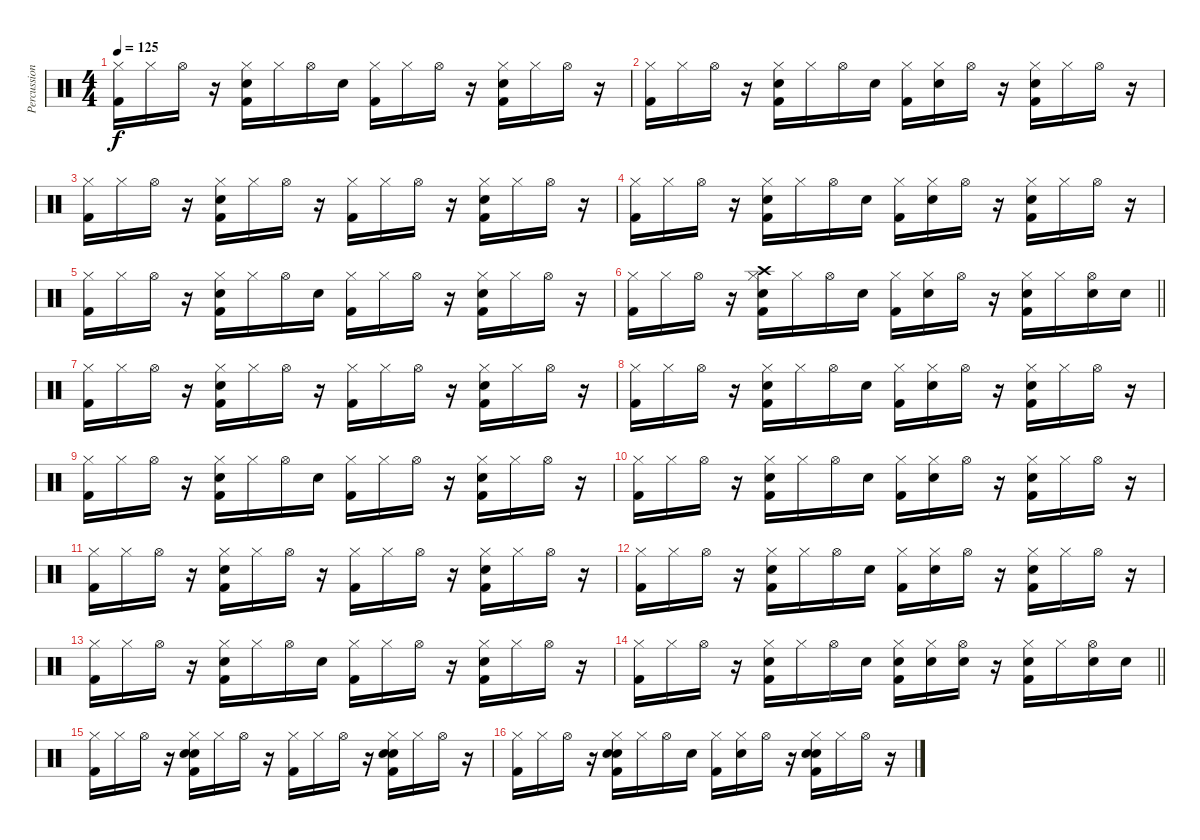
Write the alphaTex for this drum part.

\track ("Percussion" "Percussion") {instrument percussion}
\staff {score}
\articulation defaults
\ts (4 4)
\tempo 125
\clef neutral
\ks c
("Hi-Hat (closed)" "Kick (hit) 2").16{dy f} "Hi-Hat (closed)".16 "Hi-Hat (open)".16 r.16 ("Hi-Hat (closed)" "Electric Snare (hit)" "Kick (hit) 2").16 "Hi-Hat (closed)".16 "Hi-Hat (open)".16 "Electric Snare (hit)".16 ("Hi-Hat (closed)" "Kick (hit) 2").16 "Hi-Hat (closed)".16 "Hi-Hat (open)".16 r.16 ("Hi-Hat (closed)" "Electric Snare (hit)" "Kick (hit) 2").16 "Hi-Hat (closed)".16 "Hi-Hat (open)".16 r.16 |
("Hi-Hat (closed)" "Kick (hit) 2").16 "Hi-Hat (closed)".16 "Hi-Hat (open)".16 r.16 ("Hi-Hat (closed)" "Electric Snare (hit)" "Kick (hit) 2").16 "Hi-Hat (closed)".16 "Hi-Hat (open)".16 "Electric Snare (hit)".16 ("Hi-Hat (closed)" "Kick (hit) 2").16 ("Hi-Hat (closed)" "Electric Snare (hit)").16 "Hi-Hat (open)".16 r.16 ("Hi-Hat (closed)" "Electric Snare (hit)" "Kick (hit) 2").16 "Hi-Hat (closed)".16 "Hi-Hat (open)".16 r.16 |
("Hi-Hat (closed)" "Kick (hit) 2").16 "Hi-Hat (closed)".16 "Hi-Hat (open)".16 r.16 ("Hi-Hat (closed)" "Electric Snare (hit)" "Kick (hit) 2").16 "Hi-Hat (closed)".16 "Hi-Hat (open)".16 r.16 ("Hi-Hat (closed)" "Kick (hit) 2").16 "Hi-Hat (closed)".16 "Hi-Hat (open)".16 r.16 ("Hi-Hat (closed)" "Electric Snare (hit)" "Kick (hit) 2").16 "Hi-Hat (closed)".16 "Hi-Hat (open)".16 r.16 |
("Hi-Hat (closed)" "Kick (hit) 2").16 "Hi-Hat (closed)".16 "Hi-Hat (open)".16 r.16 ("Hi-Hat (closed)" "Electric Snare (hit)" "Kick (hit) 2").16 "Hi-Hat (closed)".16 "Hi-Hat (open)".16 "Electric Snare (hit)".16 ("Hi-Hat (closed)" "Kick (hit) 2").16 ("Hi-Hat (closed)" "Electric Snare (hit)").16 "Hi-Hat (open)".16 r.16 ("Hi-Hat (closed)" "Electric Snare (hit)" "Kick (hit) 2").16 "Hi-Hat (closed)".16 "Hi-Hat (open)".16 r.16 |
("Hi-Hat (closed)" "Kick (hit) 2").16 "Hi-Hat (closed)".16 "Hi-Hat (open)".16 r.16 ("Hi-Hat (closed)" "Electric Snare (hit)" "Kick (hit) 2").16 "Hi-Hat (closed)".16 "Hi-Hat (open)".16 "Electric Snare (hit)".16 ("Hi-Hat (closed)" "Kick (hit) 2").16 "Hi-Hat (closed)".16 "Hi-Hat (open)".16 r.16 ("Hi-Hat (closed)" "Electric Snare (hit)" "Kick (hit) 2").16 "Hi-Hat (closed)".16 "Hi-Hat (open)".16 r.16 |
\barLineRight lightlight
("Hi-Hat (closed)" "Kick (hit) 2").16 "Hi-Hat (closed)".16 "Hi-Hat (open)".16 r.16 ("Hi-Hat (closed)" "Crash high (hit)" "Electric Snare (hit)" "Kick (hit) 2").16 "Hi-Hat (closed)".16 "Hi-Hat (open)".16 "Electric Snare (hit)".16 ("Hi-Hat (closed)" "Kick (hit) 2").16 ("Hi-Hat (closed)" "Electric Snare (hit)").16 "Hi-Hat (open)".16 r.16 ("Hi-Hat (closed)" "Electric Snare (hit)" "Kick (hit) 2").16 "Hi-Hat (closed)".16 ("Hi-Hat (open)" "Electric Snare (hit)").16 "Electric Snare (hit)".16 |
("Hi-Hat (closed)" "Kick (hit) 2").16 "Hi-Hat (closed)".16 "Hi-Hat (open)".16 r.16 ("Hi-Hat (closed)" "Electric Snare (hit)" "Kick (hit) 2").16 "Hi-Hat (closed)".16 "Hi-Hat (open)".16 r.16 ("Hi-Hat (closed)" "Kick (hit) 2").16 "Hi-Hat (closed)".16 "Hi-Hat (open)".16 r.16 ("Hi-Hat (closed)" "Electric Snare (hit)" "Kick (hit) 2").16 "Hi-Hat (closed)".16 "Hi-Hat (open)".16 r.16 |
("Hi-Hat (closed)" "Kick (hit) 2").16 "Hi-Hat (closed)".16 "Hi-Hat (open)".16 r.16 ("Hi-Hat (closed)" "Electric Snare (hit)" "Kick (hit) 2").16 "Hi-Hat (closed)".16 "Hi-Hat (open)".16 "Electric Snare (hit)".16 ("Hi-Hat (closed)" "Kick (hit) 2").16 ("Hi-Hat (closed)" "Electric Snare (hit)").16 "Hi-Hat (open)".16 r.16 ("Hi-Hat (closed)" "Electric Snare (hit)" "Kick (hit) 2").16 "Hi-Hat (closed)".16 "Hi-Hat (open)".16 r.16 |
("Hi-Hat (closed)" "Kick (hit) 2").16 "Hi-Hat (closed)".16 "Hi-Hat (open)".16 r.16 ("Hi-Hat (closed)" "Electric Snare (hit)" "Kick (hit) 2").16 "Hi-Hat (closed)".16 "Hi-Hat (open)".16 "Electric Snare (hit)".16 ("Hi-Hat (closed)" "Kick (hit) 2").16 "Hi-Hat (closed)".16 "Hi-Hat (open)".16 r.16 ("Hi-Hat (closed)" "Electric Snare (hit)" "Kick (hit) 2").16 "Hi-Hat (closed)".16 "Hi-Hat (open)".16 r.16 |
("Hi-Hat (closed)" "Kick (hit) 2").16 "Hi-Hat (closed)".16 "Hi-Hat (open)".16 r.16 ("Hi-Hat (closed)" "Electric Snare (hit)" "Kick (hit) 2").16 "Hi-Hat (closed)".16 "Hi-Hat (open)".16 "Electric Snare (hit)".16 ("Hi-Hat (closed)" "Kick (hit) 2").16 ("Hi-Hat (closed)" "Electric Snare (hit)").16 "Hi-Hat (open)".16 r.16 ("Hi-Hat (closed)" "Electric Snare (hit)" "Kick (hit) 2").16 "Hi-Hat (closed)".16 "Hi-Hat (open)".16 r.16 |
("Hi-Hat (closed)" "Kick (hit) 2").16 "Hi-Hat (closed)".16 "Hi-Hat (open)".16 r.16 ("Hi-Hat (closed)" "Electric Snare (hit)" "Kick (hit) 2").16 "Hi-Hat (closed)".16 "Hi-Hat (open)".16 r.16 ("Hi-Hat (closed)" "Kick (hit) 2").16 "Hi-Hat (closed)".16 "Hi-Hat (open)".16 r.16 ("Hi-Hat (closed)" "Electric Snare (hit)" "Kick (hit) 2").16 "Hi-Hat (closed)".16 "Hi-Hat (open)".16 r.16 |
("Hi-Hat (closed)" "Kick (hit) 2").16 "Hi-Hat (closed)".16 "Hi-Hat (open)".16 r.16 ("Hi-Hat (closed)" "Electric Snare (hit)" "Kick (hit) 2").16 "Hi-Hat (closed)".16 "Hi-Hat (open)".16 "Electric Snare (hit)".16 ("Hi-Hat (closed)" "Kick (hit) 2").16 ("Hi-Hat (closed)" "Electric Snare (hit)").16 "Hi-Hat (open)".16 r.16 ("Hi-Hat (closed)" "Electric Snare (hit)" "Kick (hit) 2").16 "Hi-Hat (closed)".16 "Hi-Hat (open)".16 r.16 |
("Hi-Hat (closed)" "Kick (hit) 2").16 "Hi-Hat (closed)".16 "Hi-Hat (open)".16 r.16 ("Hi-Hat (closed)" "Electric Snare (hit)" "Kick (hit) 2").16 "Hi-Hat (closed)".16 "Hi-Hat (open)".16 "Electric Snare (hit)".16 ("Hi-Hat (closed)" "Kick (hit) 2").16 "Hi-Hat (closed)".16 "Hi-Hat (open)".16 r.16 ("Hi-Hat (closed)" "Electric Snare (hit)" "Kick (hit) 2").16 "Hi-Hat (closed)".16 "Hi-Hat (open)".16 r.16 |
\barLineRight lightlight
("Hi-Hat (closed)" "Kick (hit) 2").16 "Hi-Hat (closed)".16 "Hi-Hat (open)".16 r.16 ("Hi-Hat (closed)" "Electric Snare (hit)" "Kick (hit) 2").16 "Hi-Hat (closed)".16 "Hi-Hat (open)".16 "Electric Snare (hit)".16 ("Hi-Hat (closed)" "Electric Snare (hit)" "Kick (hit) 2").16 ("Hi-Hat (closed)" "Electric Snare (hit)").16 ("Hi-Hat (open)" "Electric Snare (hit)").16 r.16 ("Hi-Hat (closed)" "Electric Snare (hit)" "Kick (hit) 2").16 "Hi-Hat (closed)".16 ("Hi-Hat (open)" "Electric Snare (hit)").16 "Electric Snare (hit)".16 |
("Hi-Hat (closed)" "Kick (hit) 2").16 "Hi-Hat (closed)".16 "Hi-Hat (open)".16 r.16 ("Hi-Hat (closed)" "Hand Clap (hit)" "Electric Snare (hit)" "Kick (hit) 2").16 "Hi-Hat (closed)".16 "Hi-Hat (open)".16 r.16 ("Hi-Hat (closed)" "Kick (hit) 2").16 "Hi-Hat (closed)".16 "Hi-Hat (open)".16 r.16 ("Hi-Hat (closed)" "Hand Clap (hit)" "Electric Snare (hit)" "Kick (hit) 2").16 "Hi-Hat (closed)".16 "Hi-Hat (open)".16 r.16 |
("Hi-Hat (closed)" "Kick (hit) 2").16 "Hi-Hat (closed)".16 "Hi-Hat (open)".16 r.16 ("Hi-Hat (closed)" "Hand Clap (hit)" "Electric Snare (hit)" "Kick (hit) 2").16 "Hi-Hat (closed)".16 "Hi-Hat (open)".16 "Electric Snare (hit)".16 ("Hi-Hat (closed)" "Kick (hit) 2").16 ("Hi-Hat (closed)" "Electric Snare (hit)").16 "Hi-Hat (open)".16 r.16 ("Hi-Hat (closed)" "Hand Clap (hit)" "Electric Snare (hit)" "Kick (hit) 2").16 "Hi-Hat (closed)".16 "Hi-Hat (open)".16 r.16
